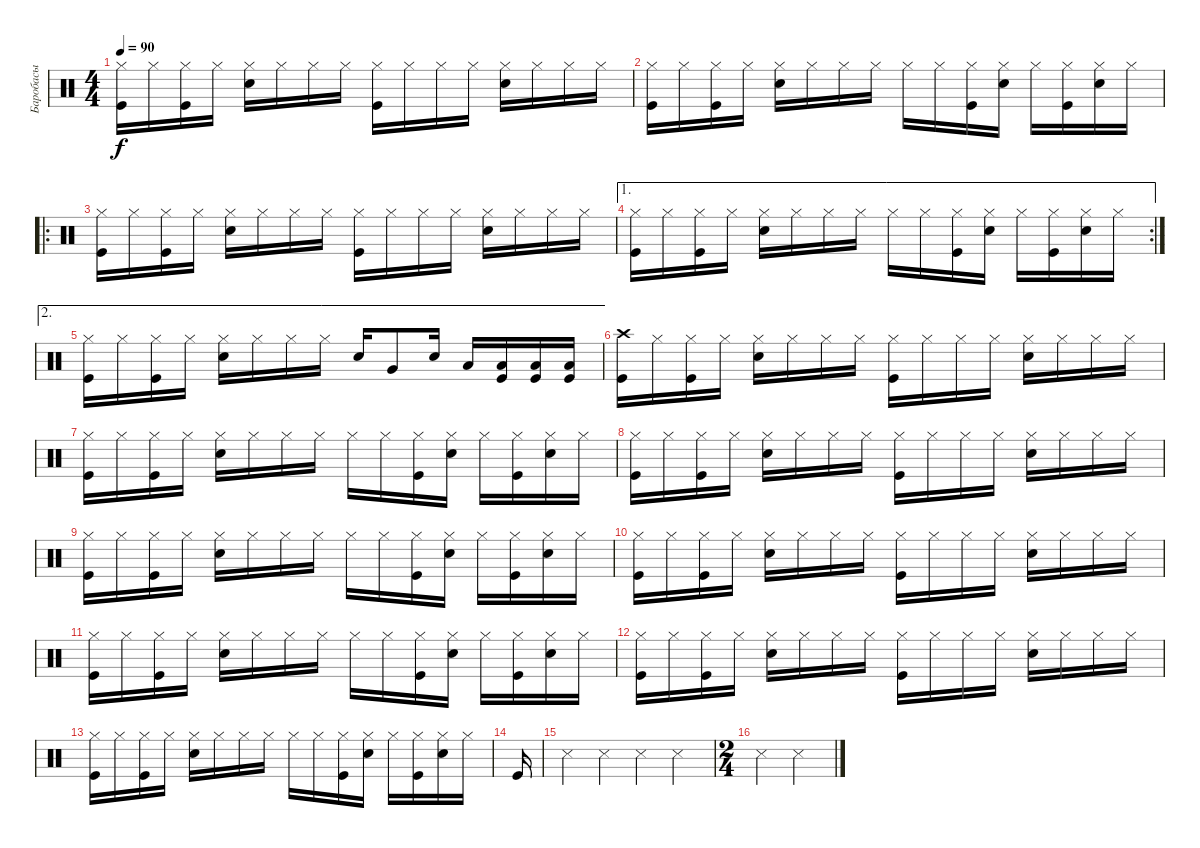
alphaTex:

\track ("Баробасы" "Баробасы") {instrument percussion}
\staff {score}
\articulation defaults
\ts (4 4)
\tempo 90
\clef neutral
\ks c
("Hi-Hat (closed)" "Kick (hit)").16{dy f} "Hi-Hat (closed)".16 ("Hi-Hat (closed)" "Kick (hit)").16 "Hi-Hat (closed)".16 ("Hi-Hat (closed)" "Snare (hit) 2").16 "Hi-Hat (closed)".16 "Hi-Hat (closed)".16 "Hi-Hat (closed)".16 ("Hi-Hat (closed)" "Kick (hit)").16 "Hi-Hat (closed)".16 "Hi-Hat (closed)".16 "Hi-Hat (closed)".16 ("Hi-Hat (closed)" "Snare (hit) 2").16 "Hi-Hat (closed)".16 "Hi-Hat (closed)".16 "Hi-Hat (closed)".16 |
("Hi-Hat (closed)" "Kick (hit)").16 "Hi-Hat (closed)".16 ("Hi-Hat (closed)" "Kick (hit)").16 "Hi-Hat (closed)".16 ("Hi-Hat (closed)" "Snare (hit) 2").16 "Hi-Hat (closed)".16 "Hi-Hat (closed)".16 "Hi-Hat (closed)".16 "Hi-Hat (closed)".16 "Hi-Hat (closed)".16 ("Hi-Hat (closed)" "Kick (hit)").16 ("Hi-Hat (closed)" "Snare (hit) 2").16 "Hi-Hat (closed)".16 ("Hi-Hat (closed)" "Kick (hit)").16 ("Hi-Hat (closed)" "Snare (hit) 2").16 "Hi-Hat (closed)".16 |
\ro
("Hi-Hat (closed)" "Kick (hit)").16 "Hi-Hat (closed)".16 ("Hi-Hat (closed)" "Kick (hit)").16 "Hi-Hat (closed)".16 ("Hi-Hat (closed)" "Snare (hit) 2").16 "Hi-Hat (closed)".16 "Hi-Hat (closed)".16 "Hi-Hat (closed)".16 ("Hi-Hat (closed)" "Kick (hit)").16 "Hi-Hat (closed)".16 "Hi-Hat (closed)".16 "Hi-Hat (closed)".16 ("Hi-Hat (closed)" "Snare (hit) 2").16 "Hi-Hat (closed)".16 "Hi-Hat (closed)".16 "Hi-Hat (closed)".16 |
\ae 1
\rc 2
("Hi-Hat (closed)" "Kick (hit)").16 "Hi-Hat (closed)".16 ("Hi-Hat (closed)" "Kick (hit)").16 "Hi-Hat (closed)".16 ("Hi-Hat (closed)" "Snare (hit) 2").16 "Hi-Hat (closed)".16 "Hi-Hat (closed)".16 "Hi-Hat (closed)".16 "Hi-Hat (closed)".16 "Hi-Hat (closed)".16 ("Hi-Hat (closed)" "Kick (hit)").16 ("Hi-Hat (closed)" "Snare (hit) 2").16 "Hi-Hat (closed)".16 ("Hi-Hat (closed)" "Kick (hit)").16 ("Hi-Hat (closed)" "Snare (hit) 2").16 "Hi-Hat (closed)".16 |
\ae 2
("Hi-Hat (closed)" "Kick (hit)").16 "Hi-Hat (closed)".16 ("Hi-Hat (closed)" "Kick (hit)").16 "Hi-Hat (closed)".16 ("Hi-Hat (closed)" "Snare (hit) 2").16 "Hi-Hat (closed)".16 "Hi-Hat (closed)".16 "Hi-Hat (closed)".16 "Electric Snare (hit)".16 "Very Low Tom (hit)".8 "Electric Snare (hit)".16 "Low Floor Tom (hit)".16 ("Kick (hit)" "Low Floor Tom (hit)").16 ("Kick (hit)" "Low Floor Tom (hit)").16 ("Kick (hit)" "Low Floor Tom (hit)").16 |
("Crash high (hit)" "Kick (hit)").16 "Hi-Hat (closed)".16 ("Hi-Hat (closed)" "Kick (hit)").16 "Hi-Hat (closed)".16 ("Hi-Hat (closed)" "Snare (hit) 2").16 "Hi-Hat (closed)".16 "Hi-Hat (closed)".16 "Hi-Hat (closed)".16 ("Hi-Hat (closed)" "Kick (hit)").16 "Hi-Hat (closed)".16 "Hi-Hat (closed)".16 "Hi-Hat (closed)".16 ("Hi-Hat (closed)" "Snare (hit) 2").16 "Hi-Hat (closed)".16 "Hi-Hat (closed)".16 "Hi-Hat (closed)".16 |
("Hi-Hat (closed)" "Kick (hit)").16 "Hi-Hat (closed)".16 ("Hi-Hat (closed)" "Kick (hit)").16 "Hi-Hat (closed)".16 ("Hi-Hat (closed)" "Snare (hit) 2").16 "Hi-Hat (closed)".16 "Hi-Hat (closed)".16 "Hi-Hat (closed)".16 "Hi-Hat (closed)".16 "Hi-Hat (closed)".16 ("Hi-Hat (closed)" "Kick (hit)").16 ("Hi-Hat (closed)" "Snare (hit) 2").16 "Hi-Hat (closed)".16 ("Hi-Hat (closed)" "Kick (hit)").16 ("Hi-Hat (closed)" "Snare (hit) 2").16 "Hi-Hat (closed)".16 |
("Hi-Hat (closed)" "Kick (hit)").16 "Hi-Hat (closed)".16 ("Hi-Hat (closed)" "Kick (hit)").16 "Hi-Hat (closed)".16 ("Hi-Hat (closed)" "Snare (hit) 2").16 "Hi-Hat (closed)".16 "Hi-Hat (closed)".16 "Hi-Hat (closed)".16 ("Hi-Hat (closed)" "Kick (hit)").16 "Hi-Hat (closed)".16 "Hi-Hat (closed)".16 "Hi-Hat (closed)".16 ("Hi-Hat (closed)" "Snare (hit) 2").16 "Hi-Hat (closed)".16 "Hi-Hat (closed)".16 "Hi-Hat (closed)".16 |
("Hi-Hat (closed)" "Kick (hit)").16 "Hi-Hat (closed)".16 ("Hi-Hat (closed)" "Kick (hit)").16 "Hi-Hat (closed)".16 ("Hi-Hat (closed)" "Snare (hit) 2").16 "Hi-Hat (closed)".16 "Hi-Hat (closed)".16 "Hi-Hat (closed)".16 "Hi-Hat (closed)".16 "Hi-Hat (closed)".16 ("Hi-Hat (closed)" "Kick (hit)").16 ("Hi-Hat (closed)" "Snare (hit) 2").16 "Hi-Hat (closed)".16 ("Hi-Hat (closed)" "Kick (hit)").16 ("Hi-Hat (closed)" "Snare (hit) 2").16 "Hi-Hat (closed)".16 |
("Hi-Hat (closed)" "Kick (hit)").16 "Hi-Hat (closed)".16 ("Hi-Hat (closed)" "Kick (hit)").16 "Hi-Hat (closed)".16 ("Hi-Hat (closed)" "Snare (hit) 2").16 "Hi-Hat (closed)".16 "Hi-Hat (closed)".16 "Hi-Hat (closed)".16 ("Hi-Hat (closed)" "Kick (hit)").16 "Hi-Hat (closed)".16 "Hi-Hat (closed)".16 "Hi-Hat (closed)".16 ("Hi-Hat (closed)" "Snare (hit) 2").16 "Hi-Hat (closed)".16 "Hi-Hat (closed)".16 "Hi-Hat (closed)".16 |
("Hi-Hat (closed)" "Kick (hit)").16 "Hi-Hat (closed)".16 ("Hi-Hat (closed)" "Kick (hit)").16 "Hi-Hat (closed)".16 ("Hi-Hat (closed)" "Snare (hit) 2").16 "Hi-Hat (closed)".16 "Hi-Hat (closed)".16 "Hi-Hat (closed)".16 "Hi-Hat (closed)".16 "Hi-Hat (closed)".16 ("Hi-Hat (closed)" "Kick (hit)").16 ("Hi-Hat (closed)" "Snare (hit) 2").16 "Hi-Hat (closed)".16 ("Hi-Hat (closed)" "Kick (hit)").16 ("Hi-Hat (closed)" "Snare (hit) 2").16 "Hi-Hat (closed)".16 |
("Hi-Hat (closed)" "Kick (hit)").16 "Hi-Hat (closed)".16 ("Hi-Hat (closed)" "Kick (hit)").16 "Hi-Hat (closed)".16 ("Hi-Hat (closed)" "Snare (hit) 2").16 "Hi-Hat (closed)".16 "Hi-Hat (closed)".16 "Hi-Hat (closed)".16 ("Hi-Hat (closed)" "Kick (hit)").16 "Hi-Hat (closed)".16 "Hi-Hat (closed)".16 "Hi-Hat (closed)".16 ("Hi-Hat (closed)" "Snare (hit) 2").16 "Hi-Hat (closed)".16 "Hi-Hat (closed)".16 "Hi-Hat (closed)".16 |
("Hi-Hat (closed)" "Kick (hit)").16 "Hi-Hat (closed)".16 ("Hi-Hat (closed)" "Kick (hit)").16 "Hi-Hat (closed)".16 ("Hi-Hat (closed)" "Snare (hit) 2").16 "Hi-Hat (closed)".16 "Hi-Hat (closed)".16 "Hi-Hat (closed)".16 "Hi-Hat (closed)".16 "Hi-Hat (closed)".16 ("Hi-Hat (closed)" "Kick (hit)").16 ("Hi-Hat (closed)" "Snare (hit) 2").16 "Hi-Hat (closed)".16 ("Hi-Hat (closed)" "Kick (hit)").16 ("Hi-Hat (closed)" "Snare (hit) 2").16 "Hi-Hat (closed)".16 |
"Kick (hit)".16 |
"Snare (side stick) 3".4 "Snare (side stick) 3".4 "Snare (side stick) 3".4 "Snare (side stick) 3".4 |
\ts (2 4)
"Snare (side stick) 3".4 "Snare (side stick) 3".4
